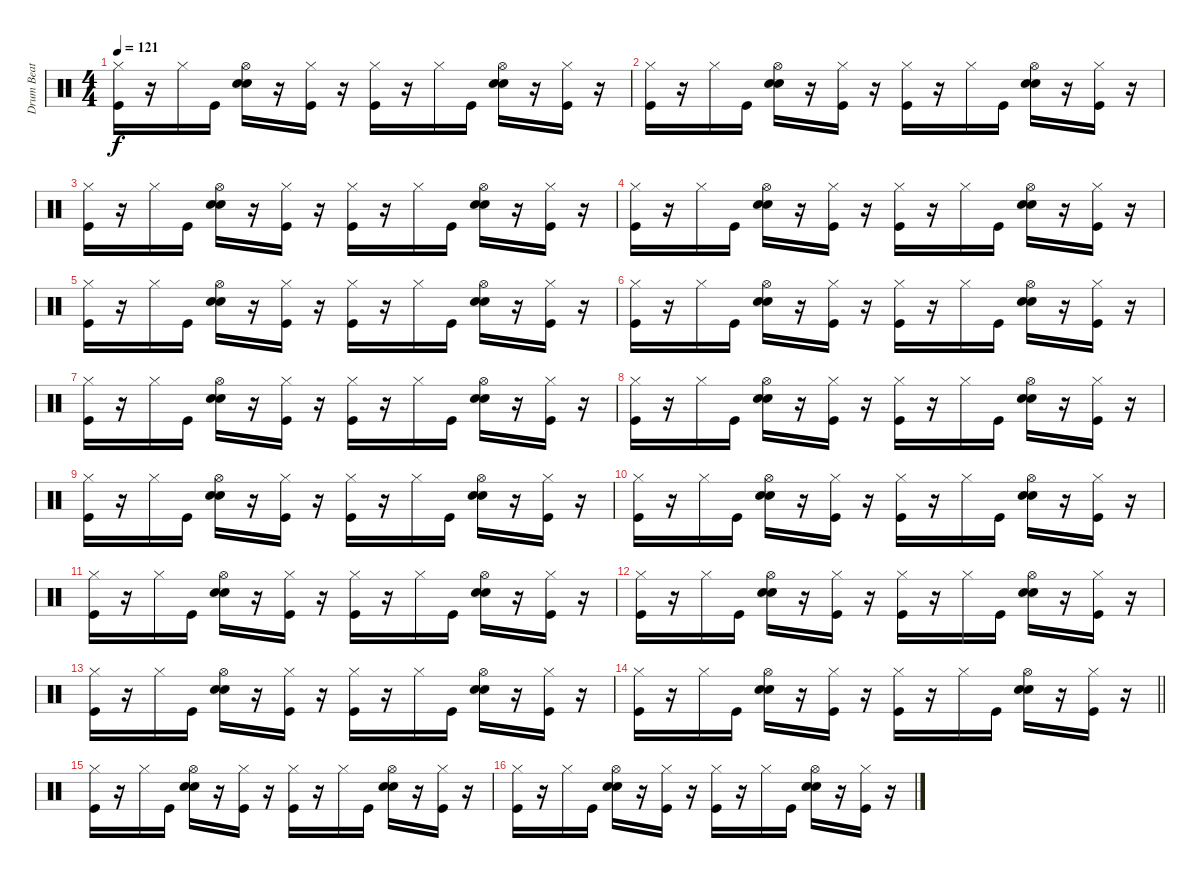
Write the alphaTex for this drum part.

\track ("Drum Beat" "Drum Beat") {instrument percussion}
\staff {score}
\articulation defaults
\ts (4 4)
\tempo 121
\clef neutral
\ks c
("Hi-Hat (closed)" "Kick (hit)").16{dy f} r.16 "Hi-Hat (closed)".16 "Kick (hit)".16 ("Hi-Hat (open)" "Snare (hit) 2" "Hand Clap (hit)").16 r.16 ("Hi-Hat (closed)" "Kick (hit)").16 r.16 ("Hi-Hat (closed)" "Kick (hit)").16 r.16 "Hi-Hat (closed)".16 "Kick (hit)".16 ("Hi-Hat (open)" "Snare (hit) 2" "Hand Clap (hit)").16 r.16 ("Hi-Hat (closed)" "Kick (hit)").16 r.16 |
("Hi-Hat (closed)" "Kick (hit)").16 r.16 "Hi-Hat (closed)".16 "Kick (hit)".16 ("Hi-Hat (open)" "Snare (hit) 2" "Hand Clap (hit)").16 r.16 ("Hi-Hat (closed)" "Kick (hit)").16 r.16 ("Hi-Hat (closed)" "Kick (hit)").16 r.16 "Hi-Hat (closed)".16 "Kick (hit)".16 ("Hi-Hat (open)" "Snare (hit) 2" "Hand Clap (hit)").16 r.16 ("Hi-Hat (closed)" "Kick (hit)").16 r.16 |
("Hi-Hat (closed)" "Kick (hit)").16 r.16 "Hi-Hat (closed)".16 "Kick (hit)".16 ("Hi-Hat (open)" "Snare (hit) 2" "Hand Clap (hit)").16 r.16 ("Hi-Hat (closed)" "Kick (hit)").16 r.16 ("Hi-Hat (closed)" "Kick (hit)").16 r.16 "Hi-Hat (closed)".16 "Kick (hit)".16 ("Hi-Hat (open)" "Snare (hit) 2" "Hand Clap (hit)").16 r.16 ("Hi-Hat (closed)" "Kick (hit)").16 r.16 |
("Hi-Hat (closed)" "Kick (hit)").16 r.16 "Hi-Hat (closed)".16 "Kick (hit)".16 ("Hi-Hat (open)" "Snare (hit) 2" "Hand Clap (hit)").16 r.16 ("Hi-Hat (closed)" "Kick (hit)").16 r.16 ("Hi-Hat (closed)" "Kick (hit)").16 r.16 "Hi-Hat (closed)".16 "Kick (hit)".16 ("Hi-Hat (open)" "Snare (hit) 2" "Hand Clap (hit)").16 r.16 ("Hi-Hat (closed)" "Kick (hit)").16 r.16 |
("Hi-Hat (closed)" "Kick (hit)").16 r.16 "Hi-Hat (closed)".16 "Kick (hit)".16 ("Hi-Hat (open)" "Snare (hit) 2" "Hand Clap (hit)").16 r.16 ("Hi-Hat (closed)" "Kick (hit)").16 r.16 ("Hi-Hat (closed)" "Kick (hit)").16 r.16 "Hi-Hat (closed)".16 "Kick (hit)".16 ("Hi-Hat (open)" "Snare (hit) 2" "Hand Clap (hit)").16 r.16 ("Hi-Hat (closed)" "Kick (hit)").16 r.16 |
("Hi-Hat (closed)" "Kick (hit)").16 r.16 "Hi-Hat (closed)".16 "Kick (hit)".16 ("Hi-Hat (open)" "Snare (hit) 2" "Hand Clap (hit)").16 r.16 ("Hi-Hat (closed)" "Kick (hit)").16 r.16 ("Hi-Hat (closed)" "Kick (hit)").16 r.16 "Hi-Hat (closed)".16 "Kick (hit)".16 ("Hi-Hat (open)" "Snare (hit) 2" "Hand Clap (hit)").16 r.16 ("Hi-Hat (closed)" "Kick (hit)").16 r.16 |
("Hi-Hat (closed)" "Kick (hit)").16 r.16 "Hi-Hat (closed)".16 "Kick (hit)".16 ("Hi-Hat (open)" "Snare (hit) 2" "Hand Clap (hit)").16 r.16 ("Hi-Hat (closed)" "Kick (hit)").16 r.16 ("Hi-Hat (closed)" "Kick (hit)").16 r.16 "Hi-Hat (closed)".16 "Kick (hit)".16 ("Hi-Hat (open)" "Snare (hit) 2" "Hand Clap (hit)").16 r.16 ("Hi-Hat (closed)" "Kick (hit)").16 r.16 |
("Hi-Hat (closed)" "Kick (hit)").16 r.16 "Hi-Hat (closed)".16 "Kick (hit)".16 ("Hi-Hat (open)" "Snare (hit) 2" "Hand Clap (hit)").16 r.16 ("Hi-Hat (closed)" "Kick (hit)").16 r.16 ("Hi-Hat (closed)" "Kick (hit)").16 r.16 "Hi-Hat (closed)".16 "Kick (hit)".16 ("Hi-Hat (open)" "Snare (hit) 2" "Hand Clap (hit)").16 r.16 ("Hi-Hat (closed)" "Kick (hit)").16 r.16 |
("Hi-Hat (closed)" "Kick (hit)").16 r.16 "Hi-Hat (closed)".16 "Kick (hit)".16 ("Hi-Hat (open)" "Snare (hit) 2" "Hand Clap (hit)").16 r.16 ("Hi-Hat (closed)" "Kick (hit)").16 r.16 ("Hi-Hat (closed)" "Kick (hit)").16 r.16 "Hi-Hat (closed)".16 "Kick (hit)".16 ("Hi-Hat (open)" "Snare (hit) 2" "Hand Clap (hit)").16 r.16 ("Hi-Hat (closed)" "Kick (hit)").16 r.16 |
("Hi-Hat (closed)" "Kick (hit)").16 r.16 "Hi-Hat (closed)".16 "Kick (hit)".16 ("Hi-Hat (open)" "Snare (hit) 2" "Hand Clap (hit)").16 r.16 ("Hi-Hat (closed)" "Kick (hit)").16 r.16 ("Hi-Hat (closed)" "Kick (hit)").16 r.16 "Hi-Hat (closed)".16 "Kick (hit)".16 ("Hi-Hat (open)" "Snare (hit) 2" "Hand Clap (hit)").16 r.16 ("Hi-Hat (closed)" "Kick (hit)").16 r.16 |
("Hi-Hat (closed)" "Kick (hit)").16 r.16 "Hi-Hat (closed)".16 "Kick (hit)".16 ("Hi-Hat (open)" "Snare (hit) 2" "Hand Clap (hit)").16 r.16 ("Hi-Hat (closed)" "Kick (hit)").16 r.16 ("Hi-Hat (closed)" "Kick (hit)").16 r.16 "Hi-Hat (closed)".16 "Kick (hit)".16 ("Hi-Hat (open)" "Snare (hit) 2" "Hand Clap (hit)").16 r.16 ("Hi-Hat (closed)" "Kick (hit)").16 r.16 |
("Hi-Hat (closed)" "Kick (hit)").16 r.16 "Hi-Hat (closed)".16 "Kick (hit)".16 ("Hi-Hat (open)" "Snare (hit) 2" "Hand Clap (hit)").16 r.16 ("Hi-Hat (closed)" "Kick (hit)").16 r.16 ("Hi-Hat (closed)" "Kick (hit)").16 r.16 "Hi-Hat (closed)".16 "Kick (hit)".16 ("Hi-Hat (open)" "Snare (hit) 2" "Hand Clap (hit)").16 r.16 ("Hi-Hat (closed)" "Kick (hit)").16 r.16 |
("Hi-Hat (closed)" "Kick (hit)").16 r.16 "Hi-Hat (closed)".16 "Kick (hit)".16 ("Hi-Hat (open)" "Snare (hit) 2" "Hand Clap (hit)").16 r.16 ("Hi-Hat (closed)" "Kick (hit)").16 r.16 ("Hi-Hat (closed)" "Kick (hit)").16 r.16 "Hi-Hat (closed)".16 "Kick (hit)".16 ("Hi-Hat (open)" "Snare (hit) 2" "Hand Clap (hit)").16 r.16 ("Hi-Hat (closed)" "Kick (hit)").16 r.16 |
\barLineRight lightlight
("Hi-Hat (closed)" "Kick (hit)").16 r.16 "Hi-Hat (closed)".16 "Kick (hit)".16 ("Hi-Hat (open)" "Snare (hit) 2" "Hand Clap (hit)").16 r.16 ("Hi-Hat (closed)" "Kick (hit)").16 r.16 ("Hi-Hat (closed)" "Kick (hit)").16 r.16 "Hi-Hat (closed)".16 "Kick (hit)".16 ("Hi-Hat (open)" "Snare (hit) 2" "Hand Clap (hit)").16 r.16 ("Hi-Hat (closed)" "Kick (hit)").16 r.16 |
("Hi-Hat (closed)" "Kick (hit)").16 r.16 "Hi-Hat (closed)".16 "Kick (hit)".16 ("Hi-Hat (open)" "Snare (hit) 2" "Hand Clap (hit)").16 r.16 ("Hi-Hat (closed)" "Kick (hit)").16 r.16 ("Hi-Hat (closed)" "Kick (hit)").16 r.16 "Hi-Hat (closed)".16 "Kick (hit)".16 ("Hi-Hat (open)" "Snare (hit) 2" "Hand Clap (hit)").16 r.16 ("Hi-Hat (closed)" "Kick (hit)").16 r.16 |
("Hi-Hat (closed)" "Kick (hit)").16 r.16 "Hi-Hat (closed)".16 "Kick (hit)".16 ("Hi-Hat (open)" "Snare (hit) 2" "Hand Clap (hit)").16 r.16 ("Hi-Hat (closed)" "Kick (hit)").16 r.16 ("Hi-Hat (closed)" "Kick (hit)").16 r.16 "Hi-Hat (closed)".16 "Kick (hit)".16 ("Hi-Hat (open)" "Snare (hit) 2" "Hand Clap (hit)").16 r.16 ("Hi-Hat (closed)" "Kick (hit)").16 r.16
